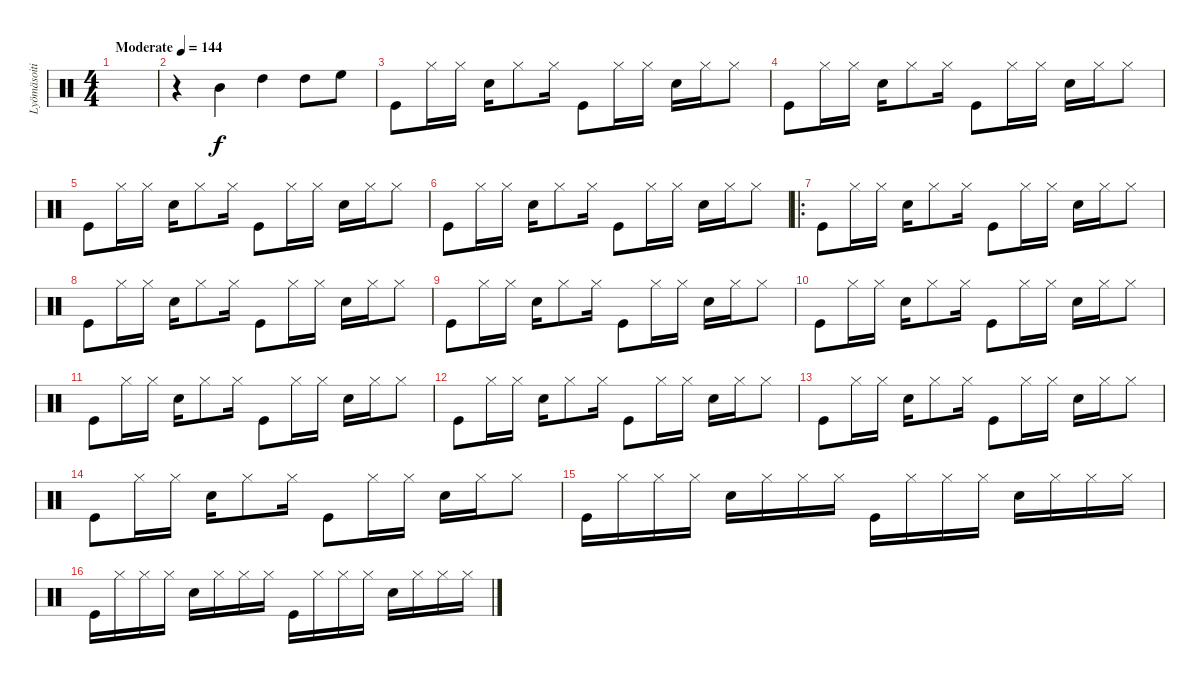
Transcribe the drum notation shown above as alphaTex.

\track ("Lyömäsoitin" "Lyömäsoiti") {instrument percussion}
\staff {score}
\articulation defaults
\ts (4 4)
\tempo (144 "Moderate")
\clef neutral
\ks c
|
r.4 "Mid Tom (hit)".4 "High Tom (hit)".4 "High Tom (hit)".8 "High Floor Tom (hit)".8 |
"Kick (hit)".8 "Hi-Hat (closed)".16 "Hi-Hat (closed)".16 "Snare (hit) 2".16 "Hi-Hat (closed)".8 "Hi-Hat (closed)".16 "Kick (hit)".8 "Hi-Hat (closed)".16 "Hi-Hat (closed)".16 "Snare (hit) 2".16 "Hi-Hat (closed)".16 "Hi-Hat (closed)".8 |
"Kick (hit)".8 "Hi-Hat (closed)".16 "Hi-Hat (closed)".16 "Snare (hit) 2".16 "Hi-Hat (closed)".8 "Hi-Hat (closed)".16 "Kick (hit)".8 "Hi-Hat (closed)".16 "Hi-Hat (closed)".16 "Snare (hit) 2".16 "Hi-Hat (closed)".16 "Hi-Hat (closed)".8 |
"Kick (hit)".8 "Hi-Hat (closed)".16 "Hi-Hat (closed)".16 "Snare (hit) 2".16 "Hi-Hat (closed)".8 "Hi-Hat (closed)".16 "Kick (hit)".8 "Hi-Hat (closed)".16 "Hi-Hat (closed)".16 "Snare (hit) 2".16 "Hi-Hat (closed)".16 "Hi-Hat (closed)".8 |
"Kick (hit)".8 "Hi-Hat (closed)".16 "Hi-Hat (closed)".16 "Snare (hit) 2".16 "Hi-Hat (closed)".8 "Hi-Hat (closed)".16 "Kick (hit)".8 "Hi-Hat (closed)".16 "Hi-Hat (closed)".16 "Snare (hit) 2".16 "Hi-Hat (closed)".16 "Hi-Hat (closed)".8 |
\ro "Kick (hit)".8 "Hi-Hat (closed)".16 "Hi-Hat (closed)".16 "Snare (hit) 2".16 "Hi-Hat (closed)".8 "Hi-Hat (closed)".16 "Kick (hit)".8 "Hi-Hat (closed)".16 "Hi-Hat (closed)".16 "Snare (hit) 2".16 "Hi-Hat (closed)".16 "Hi-Hat (closed)".8
|
"Kick (hit)".8 "Hi-Hat (closed)".16 "Hi-Hat (closed)".16 "Snare (hit) 2".16 "Hi-Hat (closed)".8 "Hi-Hat (closed)".16 "Kick (hit)".8 "Hi-Hat (closed)".16 "Hi-Hat (closed)".16 "Snare (hit) 2".16 "Hi-Hat (closed)".16 "Hi-Hat (closed)".8 |
"Kick (hit)".8 "Hi-Hat (closed)".16 "Hi-Hat (closed)".16 "Snare (hit) 2".16 "Hi-Hat (closed)".8 "Hi-Hat (closed)".16 "Kick (hit)".8 "Hi-Hat (closed)".16 "Hi-Hat (closed)".16 "Snare (hit) 2".16 "Hi-Hat (closed)".16 "Hi-Hat (closed)".8 |
"Kick (hit)".8 "Hi-Hat (closed)".16 "Hi-Hat (closed)".16 "Snare (hit) 2".16 "Hi-Hat (closed)".8 "Hi-Hat (closed)".16 "Kick (hit)".8 "Hi-Hat (closed)".16 "Hi-Hat (closed)".16 "Snare (hit) 2".16 "Hi-Hat (closed)".16 "Hi-Hat (closed)".8 |
"Kick (hit)".8 "Hi-Hat (closed)".16 "Hi-Hat (closed)".16 "Snare (hit) 2".16 "Hi-Hat (closed)".8 "Hi-Hat (closed)".16 "Kick (hit)".8 "Hi-Hat (closed)".16 "Hi-Hat (closed)".16 "Snare (hit) 2".16 "Hi-Hat (closed)".16 "Hi-Hat (closed)".8 |
"Kick (hit)".8 "Hi-Hat (closed)".16 "Hi-Hat (closed)".16 "Snare (hit) 2".16 "Hi-Hat (closed)".8 "Hi-Hat (closed)".16 "Kick (hit)".8 "Hi-Hat (closed)".16 "Hi-Hat (closed)".16 "Snare (hit) 2".16 "Hi-Hat (closed)".16 "Hi-Hat (closed)".8 |
"Kick (hit)".8 "Hi-Hat (closed)".16 "Hi-Hat (closed)".16 "Snare (hit) 2".16 "Hi-Hat (closed)".8 "Hi-Hat (closed)".16 "Kick (hit)".8 "Hi-Hat (closed)".16 "Hi-Hat (closed)".16 "Snare (hit) 2".16 "Hi-Hat (closed)".16 "Hi-Hat (closed)".8 |
"Kick (hit)".8 "Hi-Hat (closed)".16 "Hi-Hat (closed)".16 "Snare (hit) 2".16 "Hi-Hat (closed)".8 "Hi-Hat (closed)".16 "Kick (hit)".8 "Hi-Hat (closed)".16 "Hi-Hat (closed)".16 "Snare (hit) 2".16 "Hi-Hat (closed)".16 "Hi-Hat (closed)".8 |
"Kick (hit)".16 "Hi-Hat (closed)".16 "Hi-Hat (closed)".16 "Hi-Hat (closed)".16 "Snare (hit) 2".16 "Hi-Hat (closed)".16 "Hi-Hat (closed)".16 "Hi-Hat (closed)".16 "Kick (hit)".16 "Hi-Hat (closed)".16 "Hi-Hat (closed)".16 "Hi-Hat (closed)".16 "Snare (hit) 2".16 "Hi-Hat (closed)".16 "Hi-Hat (closed)".16 "Hi-Hat (closed)".16 |
"Kick (hit)".16 "Hi-Hat (closed)".16 "Hi-Hat (closed)".16 "Hi-Hat (closed)".16 "Snare (hit) 2".16 "Hi-Hat (closed)".16 "Hi-Hat (closed)".16 "Hi-Hat (closed)".16 "Kick (hit)".16 "Hi-Hat (closed)".16 "Hi-Hat (closed)".16 "Hi-Hat (closed)".16 "Snare (hit) 2".16 "Hi-Hat (closed)".16 "Hi-Hat (closed)".16 "Hi-Hat (closed)".16
